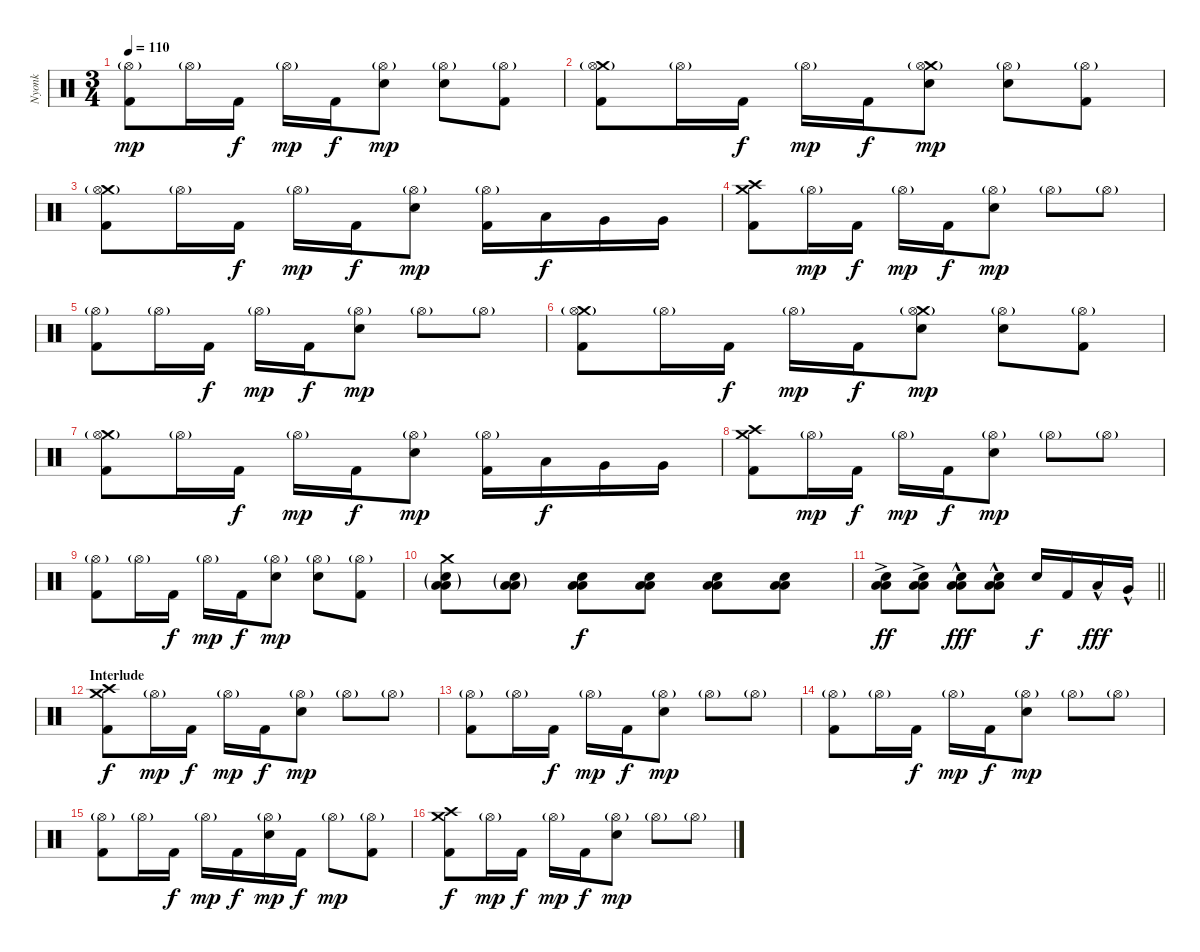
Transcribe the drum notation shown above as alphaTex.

\track ("Nyonk" "Nyonk") {instrument percussion}
\staff {score}
\articulation defaults
\ts (3 4)
\tempo 110
\clef neutral
\ks c
("Hi-Hat (open)"{g} "Kick (hit) 2").8{dy mp} "Hi-Hat (open)"{g}.16 "Kick (hit) 2".16{dy f} "Hi-Hat (open)"{g}.16{dy mp} "Kick (hit) 2".16{dy f} ("Hi-Hat (open)"{g} "Electric Snare (hit)").8{dy mp} ("Hi-Hat (open)"{g} "Electric Snare (hit)").8 ("Hi-Hat (open)"{g} "Kick (hit) 2").8 |
("Crash medium (hit)" "Hi-Hat (open)"{g} "Kick (hit) 2").8 "Hi-Hat (open)"{g}.16 "Kick (hit) 2".16{dy f} "Hi-Hat (open)"{g}.16{dy mp} "Kick (hit) 2".16{dy f} ("Crash medium (hit)" "Hi-Hat (open)"{g} "Electric Snare (hit)").8{dy mp} ("Hi-Hat (open)"{g} "Electric Snare (hit)").8 ("Hi-Hat (open)"{g} "Kick (hit) 2").8 |
("Crash medium (hit)" "Hi-Hat (open)"{g} "Kick (hit) 2").8 "Hi-Hat (open)"{g}.16 "Kick (hit) 2".16{dy f} "Hi-Hat (open)"{g}.16{dy mp} "Kick (hit) 2".16{dy f} ("Hi-Hat (open)"{g} "Electric Snare (hit)").8{dy mp} ("Hi-Hat (open)"{g} "Kick (hit) 2").16 "Low Tom (hit)".16{dy f} "Very Low Tom (hit)".16 "Very Low Tom (hit)".16 |
("Crash medium (hit)" "Crash high (hit)" "Kick (hit) 2").8 "Hi-Hat (open)"{g}.16{dy mp} "Kick (hit) 2".16{dy f} "Hi-Hat (open)"{g}.16{dy mp} "Kick (hit) 2".16{dy f} ("Hi-Hat (open)"{g} "Electric Snare (hit)").8{dy mp} "Hi-Hat (open)"{g}.8 "Hi-Hat (open)"{g}.8 |
("Hi-Hat (open)"{g} "Kick (hit) 2").8 "Hi-Hat (open)"{g}.16 "Kick (hit) 2".16{dy f} "Hi-Hat (open)"{g}.16{dy mp} "Kick (hit) 2".16{dy f} ("Hi-Hat (open)"{g} "Electric Snare (hit)").8{dy mp} "Hi-Hat (open)"{g}.8 "Hi-Hat (open)"{g}.8 |
("Crash medium (hit)" "Hi-Hat (open)"{g} "Kick (hit) 2").8 "Hi-Hat (open)"{g}.16 "Kick (hit) 2".16{dy f} "Hi-Hat (open)"{g}.16{dy mp} "Kick (hit) 2".16{dy f} ("Crash medium (hit)" "Hi-Hat (open)"{g} "Electric Snare (hit)").8{dy mp} ("Hi-Hat (open)"{g} "Electric Snare (hit)").8 ("Hi-Hat (open)"{g} "Kick (hit) 2").8 |
("Crash medium (hit)" "Hi-Hat (open)"{g} "Kick (hit) 2").8 "Hi-Hat (open)"{g}.16 "Kick (hit) 2".16{dy f} "Hi-Hat (open)"{g}.16{dy mp} "Kick (hit) 2".16{dy f} ("Hi-Hat (open)"{g} "Electric Snare (hit)").8{dy mp} ("Hi-Hat (open)"{g} "Kick (hit) 2").16 "Low Tom (hit)".16{dy f} "Very Low Tom (hit)".16 "Very Low Tom (hit)".16 |
("Crash medium (hit)" "Crash high (hit)" "Kick (hit) 2").8 "Hi-Hat (open)"{g}.16{dy mp} "Kick (hit) 2".16{dy f} "Hi-Hat (open)"{g}.16{dy mp} "Kick (hit) 2".16{dy f} ("Hi-Hat (open)"{g} "Electric Snare (hit)").8{dy mp} "Hi-Hat (open)"{g}.8 "Hi-Hat (open)"{g}.8 |
("Hi-Hat (open)"{g} "Kick (hit) 2").8 "Hi-Hat (open)"{g}.16 "Kick (hit) 2".16{dy f} "Hi-Hat (open)"{g}.16{dy mp} "Kick (hit) 2".16{dy f} ("Hi-Hat (open)"{g} "Electric Snare (hit)").8{dy mp} ("Hi-Hat (open)"{g} "Electric Snare (hit)").8 ("Hi-Hat (open)"{g} "Kick (hit) 2").8 |
("Crash medium (hit)" "Electric Snare (hit)"{g} "Low Floor Tom (hit)"{g} "Low Floor Tom (hit)"{g}).8 ("Electric Snare (hit)"{g} "Low Floor Tom (hit)"{g} "Low Floor Tom (hit)"{g}).8 ("Electric Snare (hit)" "Low Floor Tom (hit)" "Low Floor Tom (hit)").8{dy f} ("Electric Snare (hit)" "Low Floor Tom (hit)" "Low Floor Tom (hit)").8 ("Electric Snare (hit)" "Low Floor Tom (hit)" "Low Floor Tom (hit)").8 ("Electric Snare (hit)" "Low Floor Tom (hit)" "Low Floor Tom (hit)").8 |
\barLineRight lightlight
("Electric Snare (hit)"{ac} "Low Floor Tom (hit)"{ac} "Low Floor Tom (hit)"{ac}).8{dy ff} ("Electric Snare (hit)"{ac} "Low Floor Tom (hit)"{ac} "Low Floor Tom (hit)"{ac}).8 ("Electric Snare (hit)"{hac} "Low Floor Tom (hit)"{hac} "Low Floor Tom (hit)"{hac}).8{dy fff} ("Electric Snare (hit)"{hac} "Low Floor Tom (hit)"{hac} "Low Floor Tom (hit)"{hac}).8 "Electric Snare (hit)".16{dy f} "Kick (hit) 2".16 "Low Tom (hit)"{hac}.16{dy fff} "Very Low Tom (hit)"{hac}.16 |
\section ("" "Interlude")
("Crash medium (hit)" "Crash high (hit)" "Kick (hit) 2").8{dy f} "Hi-Hat (open)"{g}.16{dy mp} "Kick (hit) 2".16{dy f} "Hi-Hat (open)"{g}.16{dy mp} "Kick (hit) 2".16{dy f} ("Hi-Hat (open)"{g} "Electric Snare (hit)").8{dy mp} "Hi-Hat (open)"{g}.8 "Hi-Hat (open)"{g}.8 |
("Hi-Hat (open)"{g} "Kick (hit) 2").8 "Hi-Hat (open)"{g}.16 "Kick (hit) 2".16{dy f} "Hi-Hat (open)"{g}.16{dy mp} "Kick (hit) 2".16{dy f} ("Hi-Hat (open)"{g} "Electric Snare (hit)").8{dy mp} "Hi-Hat (open)"{g}.8 "Hi-Hat (open)"{g}.8 |
("Hi-Hat (open)"{g} "Kick (hit) 2").8 "Hi-Hat (open)"{g}.16 "Kick (hit) 2".16{dy f} "Hi-Hat (open)"{g}.16{dy mp} "Kick (hit) 2".16{dy f} ("Hi-Hat (open)"{g} "Electric Snare (hit)").8{dy mp} "Hi-Hat (open)"{g}.8 "Hi-Hat (open)"{g}.8 |
("Hi-Hat (open)"{g} "Kick (hit) 2").8 "Hi-Hat (open)"{g}.16 "Kick (hit) 2".16{dy f} "Hi-Hat (open)"{g}.16{dy mp} "Kick (hit) 2".16{dy f} ("Hi-Hat (open)"{g} "Electric Snare (hit)").16{dy mp} "Kick (hit) 2".16{dy f} "Hi-Hat (open)"{g}.8{dy mp} ("Hi-Hat (open)"{g} "Kick (hit) 2").8 |
("Crash medium (hit)" "Crash high (hit)" "Kick (hit) 2").8{dy f} "Hi-Hat (open)"{g}.16{dy mp} "Kick (hit) 2".16{dy f} "Hi-Hat (open)"{g}.16{dy mp} "Kick (hit) 2".16{dy f} ("Hi-Hat (open)"{g} "Electric Snare (hit)").8{dy mp} "Hi-Hat (open)"{g}.8 "Hi-Hat (open)"{g}.8
